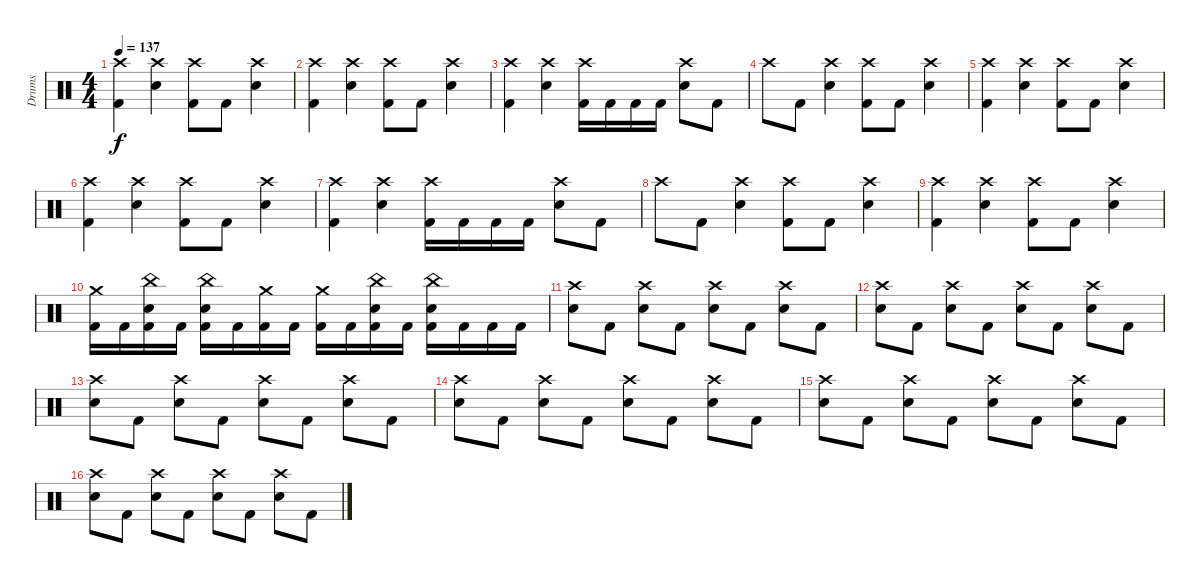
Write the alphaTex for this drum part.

\track ("Drums" "Drums") {instrument percussion}
\staff {score}
\articulation defaults
\ts (4 4)
\tempo 137
\clef neutral
\ks c
("Crash high (hit)" "Kick (hit) 2").4{dy f} ("Crash high (hit)" "Electric Snare (hit)").4 ("Crash high (hit)" "Kick (hit) 2").8 "Kick (hit) 2".8 ("Crash high (hit)" "Electric Snare (hit)").4 |
("Crash high (hit)" "Kick (hit) 2").4 ("Crash high (hit)" "Electric Snare (hit)").4 ("Crash high (hit)" "Kick (hit) 2").8 "Kick (hit) 2".8 ("Crash high (hit)" "Electric Snare (hit)").4 |
("Crash high (hit)" "Kick (hit) 2").4 ("Crash high (hit)" "Electric Snare (hit)").4 ("Crash high (hit)" "Kick (hit) 2").16 "Kick (hit) 2".16 "Kick (hit) 2".16 "Kick (hit) 2".16 ("Crash high (hit)" "Electric Snare (hit)").8 "Kick (hit) 2".8 |
"Crash high (hit)".8 "Kick (hit) 2".8 ("Crash high (hit)" "Electric Snare (hit)").4 ("Crash high (hit)" "Kick (hit) 2").8 "Kick (hit) 2".8 ("Crash high (hit)" "Electric Snare (hit)").4 |
("Crash high (hit)" "Kick (hit) 2").4 ("Crash high (hit)" "Electric Snare (hit)").4 ("Crash high (hit)" "Kick (hit) 2").8 "Kick (hit) 2".8 ("Crash high (hit)" "Electric Snare (hit)").4 |
("Crash high (hit)" "Kick (hit) 2").4 ("Crash high (hit)" "Electric Snare (hit)").4 ("Crash high (hit)" "Kick (hit) 2").8 "Kick (hit) 2".8 ("Crash high (hit)" "Electric Snare (hit)").4 |
("Crash high (hit)" "Kick (hit) 2").4 ("Crash high (hit)" "Electric Snare (hit)").4 ("Crash high (hit)" "Kick (hit) 2").16 "Kick (hit) 2".16 "Kick (hit) 2".16 "Kick (hit) 2".16 ("Crash high (hit)" "Electric Snare (hit)").8 "Kick (hit) 2".8 |
"Crash high (hit)".8 "Kick (hit) 2".8 ("Crash high (hit)" "Electric Snare (hit)").4 ("Crash high (hit)" "Kick (hit) 2").8 "Kick (hit) 2".8 ("Crash high (hit)" "Electric Snare (hit)").4 |
("Crash high (hit)" "Kick (hit) 2").4 ("Crash high (hit)" "Electric Snare (hit)").4 ("Crash high (hit)" "Kick (hit) 2").8 "Kick (hit) 2".8 ("Crash high (hit)" "Electric Snare (hit)").4 |
("Crash medium (hit)" "Kick (hit) 2").16 "Kick (hit) 2".16 ("Electric Snare (hit)" "Kick (hit) 2" "China (hit)").16 "Kick (hit) 2".16 ("Electric Snare (hit)" "Kick (hit) 2" "China (hit)").16 "Kick (hit) 2".16 ("Crash medium (hit)" "Kick (hit) 2").16 "Kick (hit) 2".16 ("Crash medium (hit)" "Kick (hit) 2").16 "Kick (hit) 2".16 ("China (hit)" "Kick (hit) 2" "Electric Snare (hit)").16 "Kick (hit) 2".16 ("China (hit)" "Kick (hit) 2" "Electric Snare (hit)").16 "Kick (hit) 2".16 "Kick (hit) 2".16 "Kick (hit) 2".16 |
("Crash high (hit)" "Electric Snare (hit)").8 "Kick (hit) 2".8 ("Crash high (hit)" "Electric Snare (hit)").8 "Kick (hit) 2".8 ("Crash high (hit)" "Electric Snare (hit)").8 "Kick (hit) 2".8 ("Crash high (hit)" "Electric Snare (hit)").8 "Kick (hit) 2".8 |
("Crash high (hit)" "Electric Snare (hit)").8 "Kick (hit) 2".8 ("Crash high (hit)" "Electric Snare (hit)").8 "Kick (hit) 2".8 ("Crash high (hit)" "Electric Snare (hit)").8 "Kick (hit) 2".8 ("Crash high (hit)" "Electric Snare (hit)").8 "Kick (hit) 2".8 |
("Crash high (hit)" "Electric Snare (hit)").8 "Kick (hit) 2".8 ("Crash high (hit)" "Electric Snare (hit)").8 "Kick (hit) 2".8 ("Crash high (hit)" "Electric Snare (hit)").8 "Kick (hit) 2".8 ("Crash high (hit)" "Electric Snare (hit)").8 "Kick (hit) 2".8 |
("Crash high (hit)" "Electric Snare (hit)").8 "Kick (hit) 2".8 ("Crash high (hit)" "Electric Snare (hit)").8 "Kick (hit) 2".8 ("Crash high (hit)" "Electric Snare (hit)").8 "Kick (hit) 2".8 ("Crash high (hit)" "Electric Snare (hit)").8 "Kick (hit) 2".8 |
("Crash high (hit)" "Electric Snare (hit)").8 "Kick (hit) 2".8 ("Crash high (hit)" "Electric Snare (hit)").8 "Kick (hit) 2".8 ("Crash high (hit)" "Electric Snare (hit)").8 "Kick (hit) 2".8 ("Crash high (hit)" "Electric Snare (hit)").8 "Kick (hit) 2".8 |
("Crash high (hit)" "Electric Snare (hit)").8 "Kick (hit) 2".8 ("Crash high (hit)" "Electric Snare (hit)").8 "Kick (hit) 2".8 ("Crash high (hit)" "Electric Snare (hit)").8 "Kick (hit) 2".8 ("Crash high (hit)" "Electric Snare (hit)").8 "Kick (hit) 2".8
